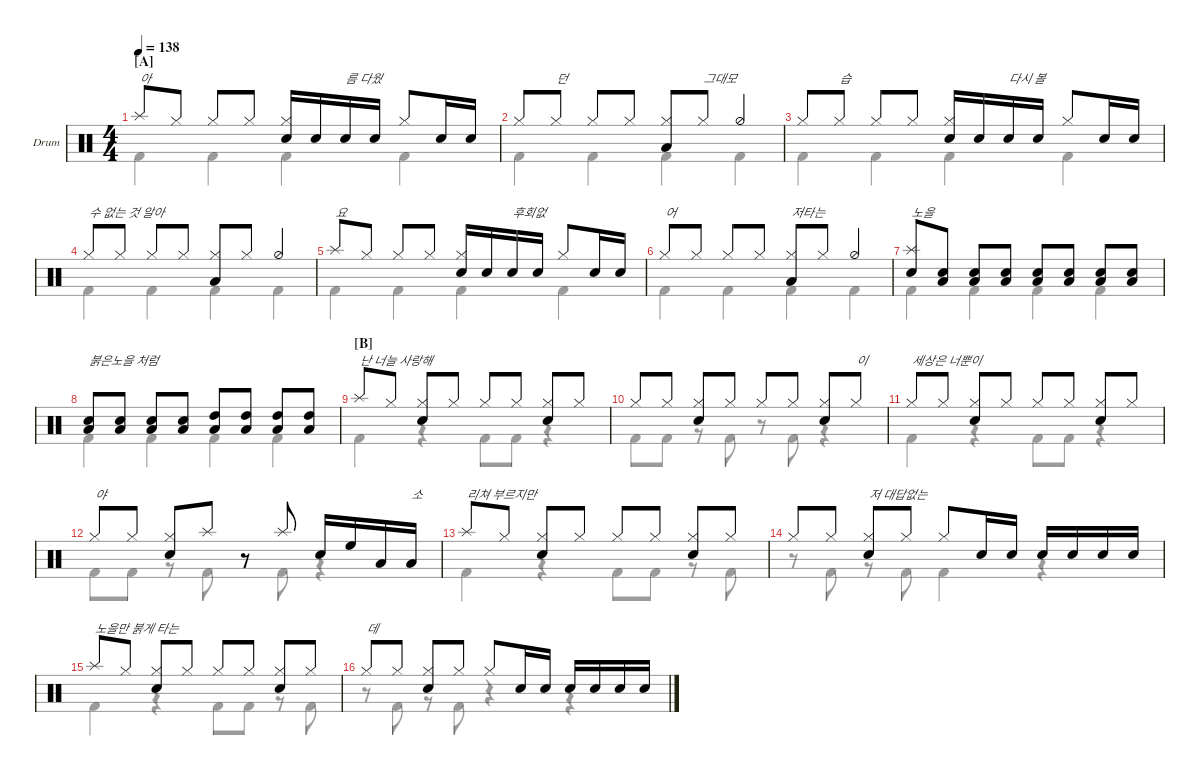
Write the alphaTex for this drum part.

\defaultSystemsLayout 4
\hideDynamics
\bracketExtendMode nobrackets
\firstSystemTrackNameOrientation horizontal
\track ("Drumkit" "Drum") {instrument percussion}
\staff {score}
\articulation defaults
\voice
\ts (4 4)
\section ("A" "")
\tempo 138
\clef neutral
\ks c "Splash (hit)".8{txt "아" dy mf beam Up} "Hi-Hat (closed)".8{beam Up} "Hi-Hat (closed)".8{beam Up} "Hi-Hat (closed)".8{beam Up}
("Hi-Hat (closed)" "Snare (hit) 2").16{beam Up} "Snare (hit) 2".16{beam Up} "Snare (hit) 2".16{txt "름 다웠" beam Up} "Snare (hit) 2".16{beam Up} "Hi-Hat (closed)".8{beam Up} "Snare (hit) 2".16{beam Up} "Snare (hit) 2".16{beam Up} |
"Hi-Hat (closed)".8{beam Up} "Hi-Hat (closed)".8{txt "던" beam Up} "Hi-Hat (closed)".8{beam Up} "Hi-Hat (closed)".8{beam Up} ("Hi-Hat (closed)" "Low Tom (hit)").8{beam Up} "Hi-Hat (closed)".8{txt "그대모" beam Up} "Hi-Hat (half)".4{beam Up} |
"Hi-Hat (closed)".8{beam Up} "Hi-Hat (closed)".8{txt "습" beam Up} "Hi-Hat (closed)".8{beam Up} "Hi-Hat (closed)".8{beam Up} ("Hi-Hat (closed)" "Snare (hit) 2").16{beam Up} "Snare (hit) 2".16{beam Up} "Snare (hit) 2".16{txt "다시 볼" beam Up} "Snare (hit) 2".16{beam Up} "Hi-Hat (closed)".8{beam Up} "Snare (hit) 2".16{beam Up} "Snare (hit) 2".16{beam Up} |
"Hi-Hat (closed)".8{txt "수 없는 것 알아" beam Up} "Hi-Hat (closed)".8{beam Up} "Hi-Hat (closed)".8{beam Up} "Hi-Hat (closed)".8{beam Up} ("Hi-Hat (closed)" "Low Tom (hit)").8{beam Up} "Hi-Hat (closed)".8{beam Up} "Hi-Hat (half)".4{beam Up} |
"Splash (hit)".8{txt "요" beam Up} "Hi-Hat (closed)".8{beam Up} "Hi-Hat (closed)".8{beam Up} "Hi-Hat (closed)".8{beam Up} ("Hi-Hat (closed)" "Snare (hit) 2").16{beam Up} "Snare (hit) 2".16{beam Up} "Snare (hit) 2".16{txt "후회없" beam Up} "Snare (hit) 2".16{beam Up} "Hi-Hat (closed)".8{beam Up} "Snare (hit) 2".16{beam Up} "Snare (hit) 2".16{beam Up} |
"Hi-Hat (closed)".8{txt "어" beam Up} "Hi-Hat (closed)".8{beam Up} "Hi-Hat (closed)".8{beam Up} "Hi-Hat (closed)".8{beam Up} ("Hi-Hat (closed)" "Low Tom (hit)").8{txt "저타는" beam Up} "Hi-Hat (closed)".8{beam Up} "Hi-Hat (half)".4{beam Up} |
("Splash (hit)" "Snare (hit) 2").8{txt "노을" beam Up} ("Snare (hit) 2" "Low Tom (hit)").8{beam Up} ("Snare (hit) 2" "Low Tom (hit)").8{beam Up} ("Snare (hit) 2" "Low Tom (hit)").8{beam Up} ("Snare (hit) 2" "Low Tom (hit)").8{beam Up} ("Snare (hit) 2" "Low Tom (hit)").8{beam Up} ("Snare (hit) 2" "Low Tom (hit)").8{beam Up} ("Snare (hit) 2" "Low Tom (hit)").8{beam Up} |
("Snare (hit) 2" "Low Tom (hit)").8{txt "붉은노을 처럼" beam Up} ("Snare (hit) 2" "Low Tom (hit)").8{beam Up} ("Snare (hit) 2" "Low Tom (hit)").8{beam Up} ("Snare (hit) 2" "Low Tom (hit)").8{beam Up} ("High Tom (hit)" "Low Tom (hit)").8{beam Up} ("High Tom (hit)" "Low Tom (hit)").8{beam Up} ("High Tom (hit)" "Low Tom (hit)").8{beam Up} ("High Tom (hit)" "Low Tom (hit)").8{beam Up} |
\section ("B" "")
"Splash (hit)".8{txt "난 너늘 사랑해" beam Up} "Hi-Hat (closed)".8{beam Up} ("Hi-Hat (closed)" "Snare (hit) 2").8{beam Up} "Hi-Hat (closed)".8{beam Up} "Hi-Hat (closed)".8{beam Up} "Hi-Hat (closed)".8{beam Up} ("Hi-Hat (closed)" "Snare (hit) 2").8{beam Up} "Hi-Hat (closed)".8{beam Up} |
"Hi-Hat (closed)".8{beam Up} "Hi-Hat (closed)".8{beam Up} ("Hi-Hat (closed)" "Snare (hit) 2").8{beam Up} "Hi-Hat (closed)".8{beam Up} "Hi-Hat (closed)".8{beam Up} "Hi-Hat (closed)".8{beam Up} ("Hi-Hat (closed)" "Snare (hit) 2").8{beam Up} "Hi-Hat (closed)".8{txt "이" beam Up} |
"Hi-Hat (closed)".8{txt "세상은 너뿐이" beam Up} "Hi-Hat (closed)".8{beam Up} ("Hi-Hat (closed)" "Snare (hit) 2").8{beam Up} "Hi-Hat (closed)".8{beam Up} "Hi-Hat (closed)".8{beam Up} "Hi-Hat (closed)".8{beam Up} ("Hi-Hat (closed)" "Snare (hit) 2").8{beam Up} "Hi-Hat (closed)".8{beam Up} |
"Hi-Hat (closed)".8{txt "야" beam Up} "Hi-Hat (closed)".8{beam Up} ("Hi-Hat (closed)" "Snare (hit) 2").8{beam Up} "Splash (hit)".8{beam Up} r.8{beam Up} "Splash (hit)".8{beam Up} "Snare (hit) 2".16{beam Up} "High Floor Tom (hit)".16{beam Up} "Low Tom (hit)".16{beam Up} "Low Tom (hit)".16{txt "소" beam Up} |
"Splash (hit)".8{txt "리쳐 부르지만" beam Up} "Hi-Hat (closed)".8{beam Up} ("Hi-Hat (closed)" "Snare (hit) 2").8{beam Up} "Hi-Hat (closed)".8{beam Up} "Hi-Hat (closed)".8{beam Up} "Hi-Hat (closed)".8{beam Up} ("Hi-Hat (closed)" "Snare (hit) 2").8{beam Up} "Hi-Hat (closed)".8{beam Up} |
"Hi-Hat (closed)".8{beam Up} "Hi-Hat (closed)".8{beam Up} ("Hi-Hat (closed)" "Snare (hit) 2").8{txt "저 대답없는" beam Up} "Hi-Hat (closed)".8{beam Up} "Hi-Hat (closed)".8{beam Up} "Snare (hit) 2".16{beam Up} "Snare (hit) 2".16{beam Up} "Snare (hit) 2".16{beam Up} "Snare (hit) 2".16{beam Up} "Snare (hit) 2".16{beam Up} "Snare (hit) 2".16{beam Up} |
"Splash (hit)".8{txt "노을만 붉게 타는" beam Up} "Hi-Hat (closed)".8{beam Up} ("Hi-Hat (closed)" "Snare (hit) 2").8{beam Up} "Hi-Hat (closed)".8{beam Up} "Hi-Hat (closed)".8{beam Up} "Hi-Hat (closed)".8{beam Up} ("Hi-Hat (closed)" "Snare (hit) 2").8{beam Up} "Hi-Hat (closed)".8{beam Up} |
"Hi-Hat (closed)".8{txt "데" beam Up} "Hi-Hat (closed)".8{beam Up} ("Hi-Hat (closed)" "Snare (hit) 2").8{beam Up} "Hi-Hat (closed)".8{beam Up} "Hi-Hat (closed)".8{beam Up} "Snare (hit) 2".16{beam Up} "Snare (hit) 2".16{beam Up} "Snare (hit) 2".16{beam Up} "Snare (hit) 2".16{beam Up} "Snare (hit) 2".16{beam Up} "Snare (hit) 2".16{beam Up}
\voice
\clef neutral
\ottava regular
\simile none
\ks c
|
|
|
|
|
|
|
|
|
|
|
|
|
|
|
\voice
\clef neutral
\ottava regular
\simile none
\ks c "Kick (hit) 2".4{dy mf beam Down} "Kick (hit) 2".4{beam Down} "Kick (hit) 2".4{beam Down} "Kick (hit) 2".4{beam Down}
|
"Kick (hit) 2".4{beam Down} "Kick (hit) 2".4{beam Down} "Kick (hit) 2".4{beam Down} "Kick (hit) 2".4{beam Down} |
"Kick (hit) 2".4{beam Down} "Kick (hit) 2".4{beam Down} "Kick (hit) 2".4{beam Down} "Kick (hit) 2".4{beam Down} |
"Kick (hit) 2".4{beam Down} "Kick (hit) 2".4{beam Down} "Kick (hit) 2".4{beam Down} "Kick (hit) 2".4{beam Down} |
"Kick (hit) 2".4{beam Down} "Kick (hit) 2".4{beam Down} "Kick (hit) 2".4{beam Down} "Kick (hit) 2".4{beam Down} |
"Kick (hit) 2".4{beam Down} "Kick (hit) 2".4{beam Down} "Kick (hit) 2".4{beam Down} "Kick (hit) 2".4{beam Down} |
"Kick (hit) 2".4{beam Down} "Kick (hit) 2".4{beam Down} "Kick (hit) 2".4{beam Down} "Kick (hit) 2".4{beam Down} |
"Kick (hit) 2".4{beam Down} "Kick (hit) 2".4{beam Down} "Kick (hit) 2".4{beam Down} "Kick (hit) 2".4{beam Down} |
"Kick (hit) 2".4{beam Down} r.4{beam Down} "Kick (hit) 2".8{beam Down} "Kick (hit) 2".8{beam Down} r.4{beam Down} |
"Kick (hit) 2".8{beam Down} "Kick (hit) 2".8{beam Down} r.8{beam Down} "Kick (hit) 2".8{beam Down} r.8{beam Down} "Kick (hit) 2".8{beam Down} r.4{beam Down} |
"Kick (hit) 2".4{beam Down} r.4{beam Down} "Kick (hit) 2".8{beam Down} "Kick (hit) 2".8{beam Down} r.4{beam Down} |
"Kick (hit) 2".8{beam Down} "Kick (hit) 2".8{beam Down} r.8{beam Down} "Kick (hit) 2".8{beam Down} r.8{beam Down} "Kick (hit) 2".8{beam Down} r.4{beam Down} |
"Kick (hit) 2".4{beam Down} r.4{beam Down} "Kick (hit) 2".8{beam Down} "Kick (hit) 2".8{beam Down} r.8{beam Down} "Kick (hit) 2".8{beam Down} |
r.8{beam Down} "Kick (hit) 2".8{beam Down} r.8{beam Down} "Kick (hit) 2".8{beam Down} "Kick (hit) 2".4{beam Down} r.4{beam Down} |
"Kick (hit) 2".4{beam Down} r.4{beam Down} "Kick (hit) 2".8{beam Down} "Kick (hit) 2".8{beam Down} r.8{beam Down} "Kick (hit) 2".8{beam Down} |
r.8{beam Down} "Kick (hit) 2".8{beam Down} r.8{beam Down} "Kick (hit) 2".8{beam Down} r.4{beam Down} r.4{beam Down}
